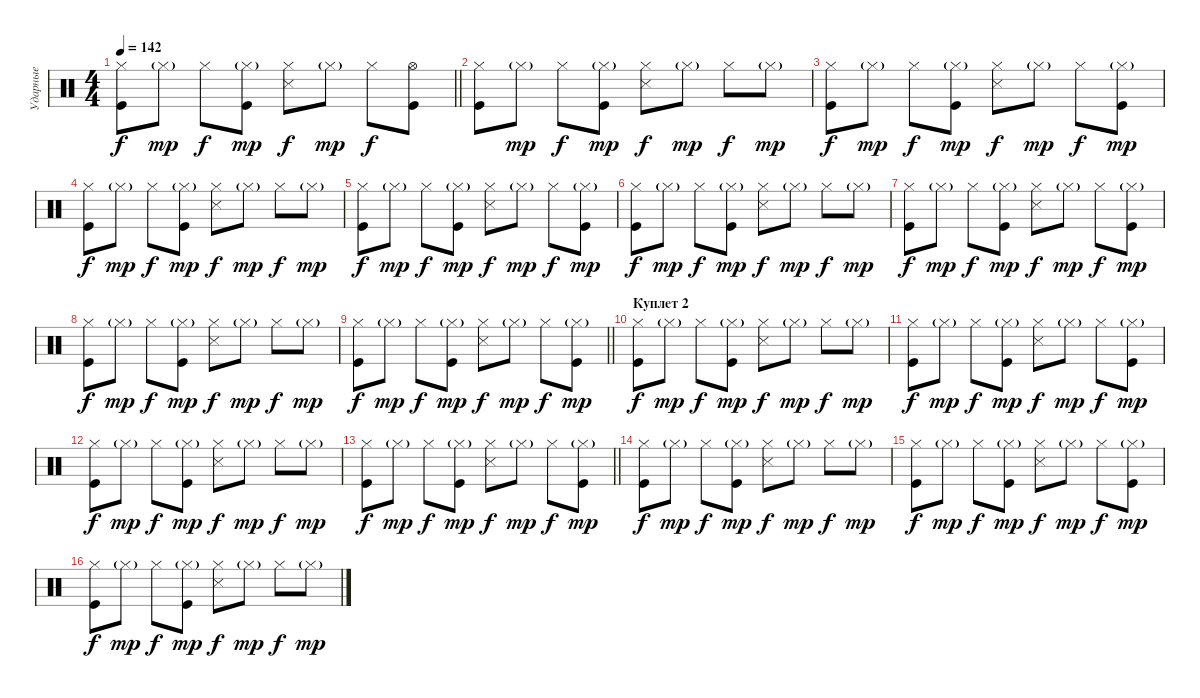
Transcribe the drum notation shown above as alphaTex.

\track ("Ударные" "Ударные") {instrument percussion}
\staff {score}
\articulation defaults
\ts (4 4)
\tempo 142
\clef neutral
\barLineRight lightlight
\ks c
("Hi-Hat (closed)" "Kick (hit)").8{dy f} "Hi-Hat (closed)"{g}.8{dy mp} "Hi-Hat (closed)".8{dy f} ("Hi-Hat (closed)"{g} "Kick (hit)").8{dy mp} ("Hi-Hat (closed)" "Snare (side stick) 3").8{dy f} "Hi-Hat (closed)"{g}.8{dy mp} "Hi-Hat (closed)".8{dy f} ("Hi-Hat (open)" "Kick (hit)").8 |
("Hi-Hat (closed)" "Kick (hit)").8 "Hi-Hat (closed)"{g}.8{dy mp} "Hi-Hat (closed)".8{dy f} ("Hi-Hat (closed)"{g} "Kick (hit)").8{dy mp} ("Hi-Hat (closed)" "Snare (side stick) 3").8{dy f} "Hi-Hat (closed)"{g}.8{dy mp} "Hi-Hat (closed)".8{dy f} "Hi-Hat (closed)"{g}.8{dy mp} |
("Hi-Hat (closed)" "Kick (hit)").8{dy f} "Hi-Hat (closed)"{g}.8{dy mp} "Hi-Hat (closed)".8{dy f} ("Hi-Hat (closed)"{g} "Kick (hit)").8{dy mp} ("Hi-Hat (closed)" "Snare (side stick) 3").8{dy f} "Hi-Hat (closed)"{g}.8{dy mp} "Hi-Hat (closed)".8{dy f} ("Hi-Hat (closed)"{g} "Kick (hit)").8{dy mp} |
("Hi-Hat (closed)" "Kick (hit)").8{dy f} "Hi-Hat (closed)"{g}.8{dy mp} "Hi-Hat (closed)".8{dy f} ("Hi-Hat (closed)"{g} "Kick (hit)").8{dy mp} ("Hi-Hat (closed)" "Snare (side stick) 3").8{dy f} "Hi-Hat (closed)"{g}.8{dy mp} "Hi-Hat (closed)".8{dy f} "Hi-Hat (closed)"{g}.8{dy mp} |
("Hi-Hat (closed)" "Kick (hit)").8{dy f} "Hi-Hat (closed)"{g}.8{dy mp} "Hi-Hat (closed)".8{dy f} ("Hi-Hat (closed)"{g} "Kick (hit)").8{dy mp} ("Hi-Hat (closed)" "Snare (side stick) 3").8{dy f} "Hi-Hat (closed)"{g}.8{dy mp} "Hi-Hat (closed)".8{dy f} ("Hi-Hat (closed)"{g} "Kick (hit)").8{dy mp} |
("Hi-Hat (closed)" "Kick (hit)").8{dy f} "Hi-Hat (closed)"{g}.8{dy mp} "Hi-Hat (closed)".8{dy f} ("Hi-Hat (closed)"{g} "Kick (hit)").8{dy mp} ("Hi-Hat (closed)" "Snare (side stick) 3").8{dy f} "Hi-Hat (closed)"{g}.8{dy mp} "Hi-Hat (closed)".8{dy f} "Hi-Hat (closed)"{g}.8{dy mp} |
("Hi-Hat (closed)" "Kick (hit)").8{dy f} "Hi-Hat (closed)"{g}.8{dy mp} "Hi-Hat (closed)".8{dy f} ("Hi-Hat (closed)"{g} "Kick (hit)").8{dy mp} ("Hi-Hat (closed)" "Snare (side stick) 3").8{dy f} "Hi-Hat (closed)"{g}.8{dy mp} "Hi-Hat (closed)".8{dy f} ("Hi-Hat (closed)"{g} "Kick (hit)").8{dy mp} |
("Hi-Hat (closed)" "Kick (hit)").8{dy f} "Hi-Hat (closed)"{g}.8{dy mp} "Hi-Hat (closed)".8{dy f} ("Hi-Hat (closed)"{g} "Kick (hit)").8{dy mp} ("Hi-Hat (closed)" "Snare (side stick) 3").8{dy f} "Hi-Hat (closed)"{g}.8{dy mp} "Hi-Hat (closed)".8{dy f} "Hi-Hat (closed)"{g}.8{dy mp} |
\barLineRight lightlight
("Hi-Hat (closed)" "Kick (hit)").8{dy f} "Hi-Hat (closed)"{g}.8{dy mp} "Hi-Hat (closed)".8{dy f} ("Hi-Hat (closed)"{g} "Kick (hit)").8{dy mp} ("Hi-Hat (closed)" "Snare (side stick) 3").8{dy f} "Hi-Hat (closed)"{g}.8{dy mp} "Hi-Hat (closed)".8{dy f} ("Hi-Hat (closed)"{g} "Kick (hit)").8{dy mp} |
\section ("" "Куплет 2")
("Hi-Hat (closed)" "Kick (hit)").8{dy f} "Hi-Hat (closed)"{g}.8{dy mp} "Hi-Hat (closed)".8{dy f} ("Hi-Hat (closed)"{g} "Kick (hit)").8{dy mp} ("Hi-Hat (closed)" "Snare (side stick) 3").8{dy f} "Hi-Hat (closed)"{g}.8{dy mp} "Hi-Hat (closed)".8{dy f} "Hi-Hat (closed)"{g}.8{dy mp} |
("Hi-Hat (closed)" "Kick (hit)").8{dy f} "Hi-Hat (closed)"{g}.8{dy mp} "Hi-Hat (closed)".8{dy f} ("Hi-Hat (closed)"{g} "Kick (hit)").8{dy mp} ("Hi-Hat (closed)" "Snare (side stick) 3").8{dy f} "Hi-Hat (closed)"{g}.8{dy mp} "Hi-Hat (closed)".8{dy f} ("Hi-Hat (closed)"{g} "Kick (hit)").8{dy mp} |
("Hi-Hat (closed)" "Kick (hit)").8{dy f} "Hi-Hat (closed)"{g}.8{dy mp} "Hi-Hat (closed)".8{dy f} ("Hi-Hat (closed)"{g} "Kick (hit)").8{dy mp} ("Hi-Hat (closed)" "Snare (side stick) 3").8{dy f} "Hi-Hat (closed)"{g}.8{dy mp} "Hi-Hat (closed)".8{dy f} "Hi-Hat (closed)"{g}.8{dy mp} |
\barLineRight lightlight
("Hi-Hat (closed)" "Kick (hit)").8{dy f} "Hi-Hat (closed)"{g}.8{dy mp} "Hi-Hat (closed)".8{dy f} ("Hi-Hat (closed)"{g} "Kick (hit)").8{dy mp} ("Hi-Hat (closed)" "Snare (side stick) 3").8{dy f} "Hi-Hat (closed)"{g}.8{dy mp} "Hi-Hat (closed)".8{dy f} ("Hi-Hat (closed)"{g} "Kick (hit)").8{dy mp} |
("Hi-Hat (closed)" "Kick (hit)").8{dy f} "Hi-Hat (closed)"{g}.8{dy mp} "Hi-Hat (closed)".8{dy f} ("Hi-Hat (closed)"{g} "Kick (hit)").8{dy mp} ("Hi-Hat (closed)" "Snare (side stick) 3").8{dy f} "Hi-Hat (closed)"{g}.8{dy mp} "Hi-Hat (closed)".8{dy f} "Hi-Hat (closed)"{g}.8{dy mp} |
("Hi-Hat (closed)" "Kick (hit)").8{dy f} "Hi-Hat (closed)"{g}.8{dy mp} "Hi-Hat (closed)".8{dy f} ("Hi-Hat (closed)"{g} "Kick (hit)").8{dy mp} ("Hi-Hat (closed)" "Snare (side stick) 3").8{dy f} "Hi-Hat (closed)"{g}.8{dy mp} "Hi-Hat (closed)".8{dy f} ("Hi-Hat (closed)"{g} "Kick (hit)").8{dy mp} |
("Hi-Hat (closed)" "Kick (hit)").8{dy f} "Hi-Hat (closed)"{g}.8{dy mp} "Hi-Hat (closed)".8{dy f} ("Hi-Hat (closed)"{g} "Kick (hit)").8{dy mp} ("Hi-Hat (closed)" "Snare (side stick) 3").8{dy f} "Hi-Hat (closed)"{g}.8{dy mp} "Hi-Hat (closed)".8{dy f} "Hi-Hat (closed)"{g}.8{dy mp}
